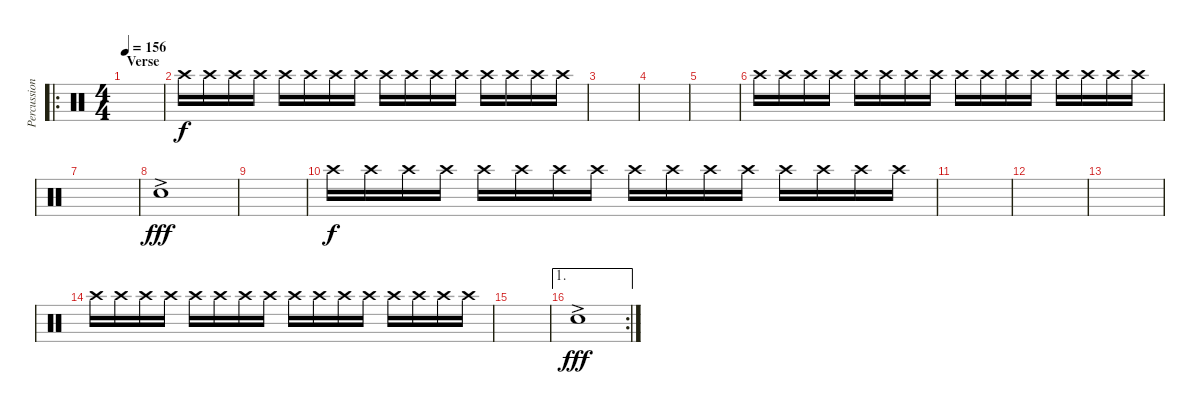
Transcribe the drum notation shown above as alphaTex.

\track ("Percussion" "Percussion") {instrument percussion}
\staff {score}
\articulation defaults
\ro
\ts (4 4)
\section ("" "Verse")
\tempo 156
\clef neutral
\ks c
|
"Crash high (hit)".16{volume 6} "Crash high (hit)".16 "Crash high (hit)".16 "Crash high (hit)".16 "Crash high (hit)".16 "Crash high (hit)".16 "Crash high (hit)".16 "Crash high (hit)".16 "Crash high (hit)".16 "Crash high (hit)".16 "Crash high (hit)".16 "Crash high (hit)".16 "Crash high (hit)".16 "Crash high (hit)".16 "Crash high (hit)".16 "Crash high (hit)".16 |
|
|
|
"Crash high (hit)".16 "Crash high (hit)".16 "Crash high (hit)".16 "Crash high (hit)".16 "Crash high (hit)".16 "Crash high (hit)".16 "Crash high (hit)".16 "Crash high (hit)".16 "Crash high (hit)".16 "Crash high (hit)".16 "Crash high (hit)".16 "Crash high (hit)".16 "Crash high (hit)".16 "Crash high (hit)".16 "Crash high (hit)".16 "Crash high (hit)".16 |
|
"Hand Clap (hit)"{ac}.1{dy fff volume 16} |
|
"Crash high (hit)".16{dy f volume 6} "Crash high (hit)".16 "Crash high (hit)".16 "Crash high (hit)".16 "Crash high (hit)".16 "Crash high (hit)".16 "Crash high (hit)".16 "Crash high (hit)".16 "Crash high (hit)".16 "Crash high (hit)".16 "Crash high (hit)".16 "Crash high (hit)".16 "Crash high (hit)".16 "Crash high (hit)".16 "Crash high (hit)".16 "Crash high (hit)".16 |
|
|
|
"Crash high (hit)".16 "Crash high (hit)".16 "Crash high (hit)".16 "Crash high (hit)".16 "Crash high (hit)".16 "Crash high (hit)".16 "Crash high (hit)".16 "Crash high (hit)".16 "Crash high (hit)".16 "Crash high (hit)".16 "Crash high (hit)".16 "Crash high (hit)".16 "Crash high (hit)".16 "Crash high (hit)".16 "Crash high (hit)".16 "Crash high (hit)".16 |
|
\ae 1
\rc 2 "Hand Clap (hit)"{ac}.1{dy fff volume 16}
